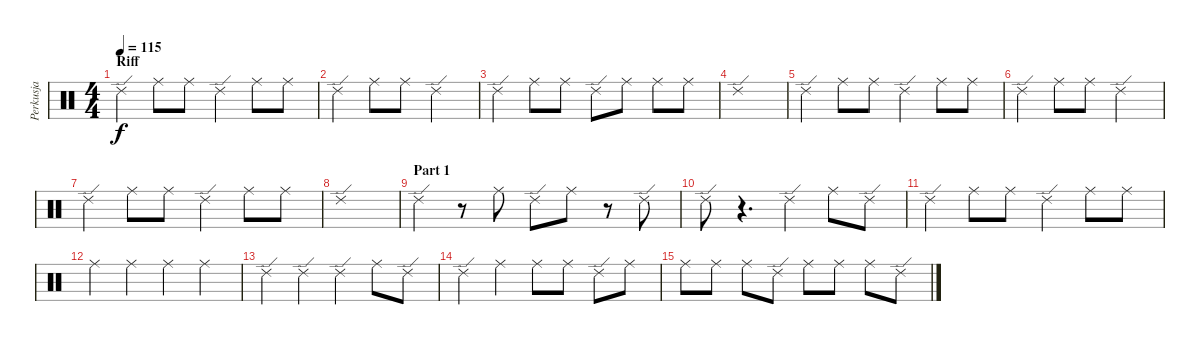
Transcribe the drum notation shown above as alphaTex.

\track ("Perkusja" "Perkusja") {instrument percussion}
\staff {score}
\articulation defaults
\ts (4 4)
\section ("" "Riff")
\tempo 115
\clef neutral
\ks c "Ride (edge) 2".4{dy f} "Ride (middle)".8 "Ride (middle)".8 "Ride (edge) 2".4 "Ride (middle)".8 "Ride (middle)".8
|
"Ride (edge) 2".4 "Ride (middle)".8 "Ride (middle)".8 "Ride (edge) 2".2 |
"Ride (edge) 2".4 "Ride (middle)".8 "Ride (middle)".8 "Ride (edge) 2".8 "Ride (middle)".8 "Ride (middle)".8 "Ride (middle)".8 |
"Ride (edge) 2".1 |
"Ride (edge) 2".4 "Ride (middle)".8 "Ride (middle)".8 "Ride (edge) 2".4 "Ride (middle)".8 "Ride (middle)".8 |
"Ride (edge) 2".4 "Ride (middle)".8 "Ride (middle)".8 "Ride (edge) 2".2 |
"Ride (edge) 2".4 "Ride (middle)".8 "Ride (middle)".8 "Ride (edge) 2".4 "Ride (middle)".8 "Ride (middle)".8 |
"Ride (edge) 2".1 |
\section ("" "Part 1")
"Ride (edge) 2".4 r.8 "Ride (middle)".8 "Ride (edge) 2".8 "Ride (middle)".8 r.8 "Ride (edge) 2".8 |
"Ride (edge) 2".8 r.4{d} "Ride (edge) 2".4 "Ride (middle)".8 "Ride (edge) 2".8 |
"Ride (edge) 2".4 "Ride (middle)".8 "Ride (middle)".8 "Ride (edge) 2".4 "Ride (middle)".8 "Ride (middle)".8 |
"Ride (middle)".4 "Ride (middle)".4 "Ride (middle)".4 "Ride (middle)".4 |
"Ride (edge) 2".4 "Ride (edge) 2".4 "Ride (edge) 2".4 "Ride (middle)".8 "Ride (edge) 2".8 |
"Ride (edge) 2".4 "Ride (middle)".4 "Ride (middle)".8 "Ride (middle)".8 "Ride (edge) 2".8 "Ride (middle)".8 |
"Ride (middle)".8 "Ride (middle)".8 "Ride (middle)".8 "Ride (edge) 2".8 "Ride (middle)".8 "Ride (middle)".8 "Ride (middle)".8 "Ride (edge) 2".8
